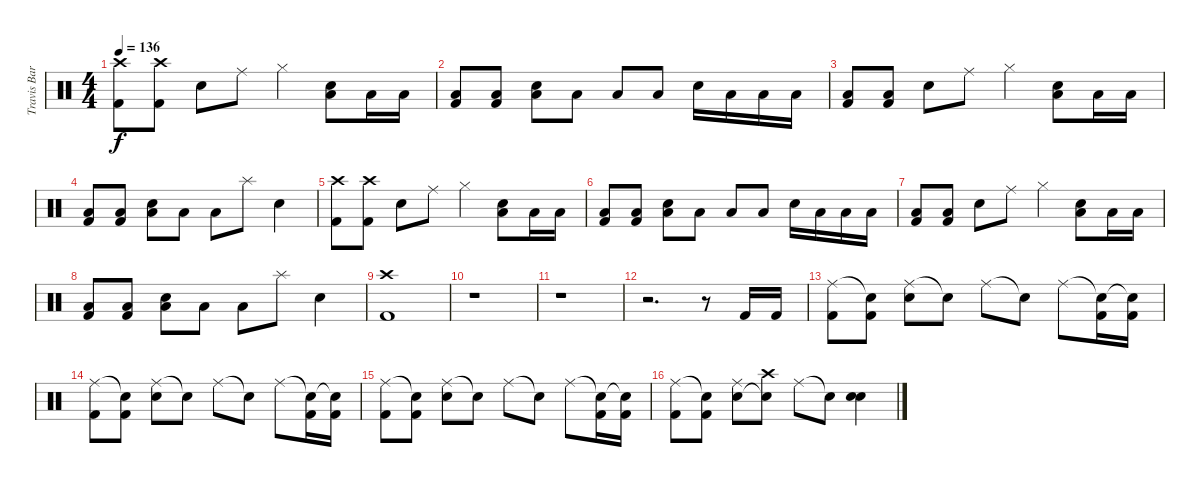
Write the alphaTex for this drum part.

\track ("Travis Barker" "Travis Bar") {instrument percussion}
\staff {score}
\articulation defaults
\ts (4 4)
\tempo 136
\clef neutral
\ks c
("Crash high (hit)" "Kick (hit) 2").8{dy f} ("Crash high (hit)" "Kick (hit) 2").8 "Snare (hit) 2".8 "Ride (middle)".8 "Hi-Hat (closed)".4 ("Low Floor Tom (hit)" "Snare (hit) 2").8 "Low Floor Tom (hit)".16 "Low Floor Tom (hit)".16 |
("Low Floor Tom (hit)" "Kick (hit) 2").8 ("Low Floor Tom (hit)" "Kick (hit) 2").8 ("Low Floor Tom (hit)" "Snare (hit) 2").8 "Low Floor Tom (hit)".8 "Low Floor Tom (hit)".8 "Low Floor Tom (hit)".8 "Snare (hit) 2".16 "Low Tom (hit)".16 "Low Floor Tom (hit)".16 "Low Floor Tom (hit)".16 |
("Low Floor Tom (hit)" "Kick (hit) 2").8 ("Low Floor Tom (hit)" "Kick (hit) 2").8 "Snare (hit) 2".8 "Ride (middle)".8 "Hi-Hat (closed)".4 ("Low Floor Tom (hit)" "Snare (hit) 2").8 "Low Floor Tom (hit)".16 "Low Floor Tom (hit)".16 |
("Low Floor Tom (hit)" "Kick (hit) 2").8 ("Low Floor Tom (hit)" "Kick (hit) 2").8 ("Low Floor Tom (hit)" "Snare (hit) 2").8 "Low Floor Tom (hit)".8 "Low Floor Tom (hit)".8 "Splash (hit)".8 "Snare (hit) 2".4 |
("Crash high (hit)" "Kick (hit) 2").8 ("Crash high (hit)" "Kick (hit) 2").8 "Snare (hit) 2".8 "Ride (middle)".8 "Hi-Hat (closed)".4 ("Low Floor Tom (hit)" "Snare (hit) 2").8 "Low Floor Tom (hit)".16 "Low Floor Tom (hit)".16 |
("Low Floor Tom (hit)" "Kick (hit) 2").8 ("Low Floor Tom (hit)" "Kick (hit) 2").8 ("Low Floor Tom (hit)" "Snare (hit) 2").8 "Low Floor Tom (hit)".8 "Low Floor Tom (hit)".8 "Low Floor Tom (hit)".8 "Snare (hit) 2".16 "Low Tom (hit)".16 "Low Floor Tom (hit)".16 "Low Floor Tom (hit)".16 |
("Low Floor Tom (hit)" "Kick (hit) 2").8 ("Low Floor Tom (hit)" "Kick (hit) 2").8 "Snare (hit) 2".8 "Ride (middle)".8 "Hi-Hat (closed)".4 ("Low Floor Tom (hit)" "Snare (hit) 2").8 "Low Floor Tom (hit)".16 "Low Floor Tom (hit)".16 |
("Low Floor Tom (hit)" "Kick (hit) 2").8 ("Low Floor Tom (hit)" "Kick (hit) 2").8 ("Low Floor Tom (hit)" "Snare (hit) 2").8 "Low Floor Tom (hit)".8 "Low Floor Tom (hit)".8 "Splash (hit)".8 "Snare (hit) 2".4 |
("Crash high (hit)" "Kick (hit) 2").1 |
r.1 |
r.1 |
r.2{d} r.8 "Kick (hit) 2".16 "Kick (hit) 2".16 |
("Ride (middle)" "Kick (hit) 2").8 ("Snare (hit)"{t} "Kick (hit) 2").8 ("Ride (middle)" "Snare (hit) 2").8 "Snare (hit)"{t}.8 "Ride (middle)".8 "Snare (hit)"{t}.8 "Ride (middle)".8 ("Snare (hit)"{t} "Kick (hit) 2").16 ("Snare (hit)"{t} "Kick (hit) 2").16 |
("Ride (middle)" "Kick (hit) 2").8 ("Snare (hit)"{t} "Kick (hit) 2").8 ("Ride (middle)" "Snare (hit) 2").8 "Snare (hit)"{t}.8 "Ride (middle)".8 "Snare (hit)"{t}.8 "Ride (middle)".8 ("Snare (hit)"{t} "Kick (hit) 2").16 ("Snare (hit)"{t} "Kick (hit) 2").16 |
("Ride (middle)" "Kick (hit) 2").8 ("Snare (hit)"{t} "Kick (hit) 2").8 ("Ride (middle)" "Snare (hit) 2").8 "Snare (hit)"{t}.8 "Ride (middle)".8 "Snare (hit)"{t}.8 "Ride (middle)".8 ("Snare (hit)"{t} "Kick (hit) 2").16 ("Snare (hit)"{t} "Kick (hit) 2").16 |
("Ride (middle)" "Kick (hit) 2").8 ("Snare (hit)"{t} "Kick (hit) 2").8 ("Ride (middle)" "Snare (hit) 2").8 ("Crash high (hit)" "Snare (hit)"{t}).8 "Ride (middle)".8 "Snare (hit)"{t}.8 ("Snare (hit) 2" "Snare (hit) 2").4
